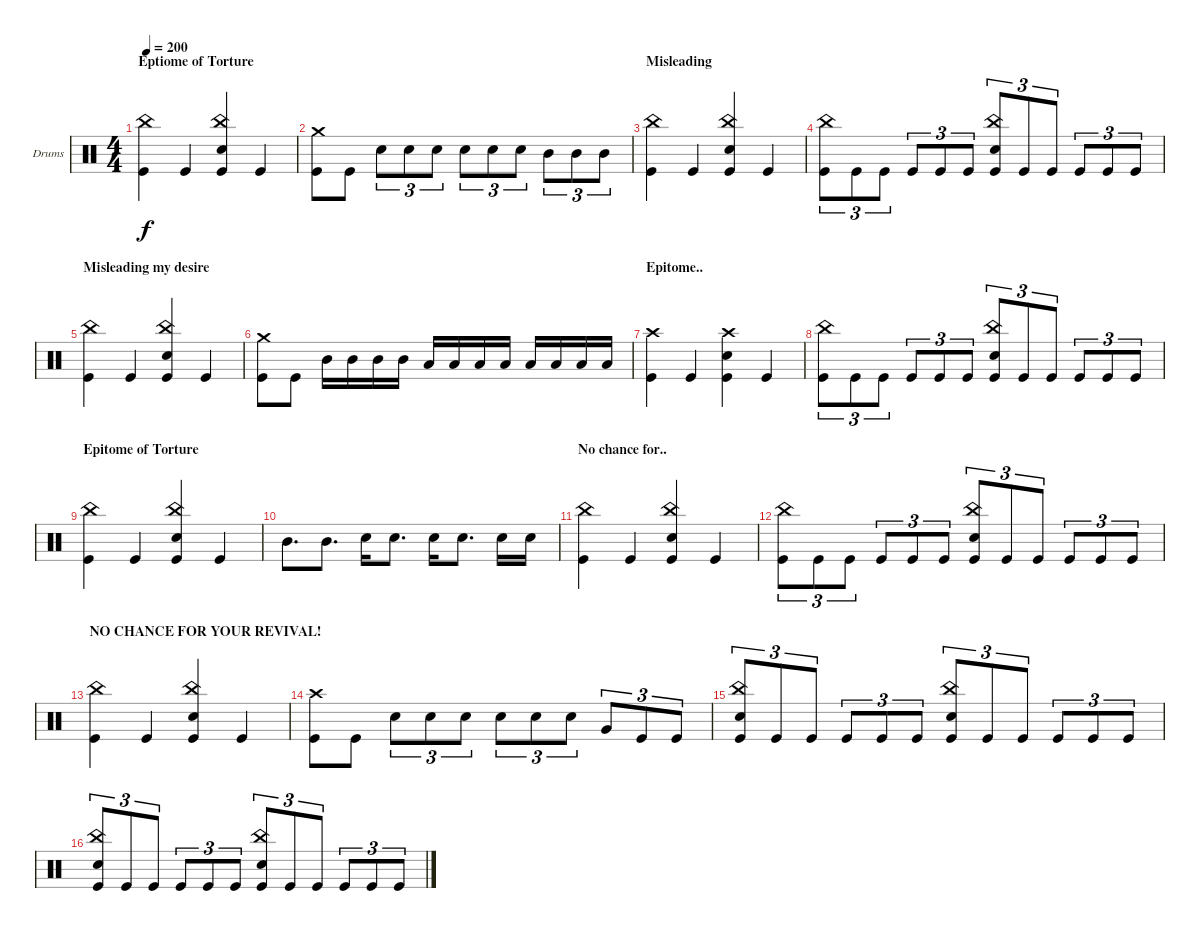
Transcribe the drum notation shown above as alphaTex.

\defaultSystemsLayout 4
\bracketExtendMode groupsimilarinstruments
\firstSystemTrackNameOrientation horizontal
\otherSystemsTrackNameOrientation horizontal
\track ("Markus Freiwald" "Drums") {instrument percussion}
\staff {score}
\articulation defaults
\ts (4 4)
\section ("" "Eptiome of Torture")
\tempo 200
\clef neutral
\ks c
("Kick (hit)" "China (hit)").4{dy f} "Kick (hit)".4 ("Snare (hit) 2" "Kick (hit)" "China (hit)").4 "Kick (hit)".4 |
("Crash medium (hit)" "Kick (hit)").8 "Kick (hit)".8 "Snare (hit) 2".8{tu (3 2)} "Snare (hit) 2".8{tu (3 2)} "Snare (hit) 2".8{tu (3 2)} "Snare (hit) 2".8{tu (3 2)} "Snare (hit) 2".8{tu (3 2)} "Snare (hit) 2".8{tu (3 2)} "Mid Tom (hit)".8{tu (3 2)} "Mid Tom (hit)".8{tu (3 2)} "Mid Tom (hit)".8{tu (3 2)} |
\section ("" "Misleading")
("Kick (hit)" "China (hit)").4 "Kick (hit)".4 ("Snare (hit) 2" "Kick (hit)" "China (hit)").4 "Kick (hit)".4 |
("China (hit)" "Kick (hit)").8{tu (3 2)} "Kick (hit)".8{tu (3 2)} "Kick (hit)".8{tu (3 2)} "Kick (hit)".8{tu (3 2)} "Kick (hit)".8{tu (3 2)} "Kick (hit)".8{tu (3 2)} ("China (hit)" "Kick (hit)" "Snare (hit) 2").8{tu (3 2)} "Kick (hit)".8{tu (3 2)} "Kick (hit)".8{tu (3 2)} "Kick (hit)".8{tu (3 2)} "Kick (hit)".8{tu (3 2)} "Kick (hit)".8{tu (3 2)} |
\section ("" "Misleading my desire")
("Kick (hit)" "China (hit)").4 "Kick (hit)".4 ("Snare (hit) 2" "Kick (hit)" "China (hit)").4 "Kick (hit)".4 |
("Crash medium (hit)" "Kick (hit)").8 "Kick (hit)".8 "Mid Tom (hit)".16 "Mid Tom (hit)".16 "Mid Tom (hit)".16 "Mid Tom (hit)".16 "Low Tom (hit)".16 "Low Tom (hit)".16 "Low Tom (hit)".16 "Low Tom (hit)".16 "Low Tom (hit)".16 "Low Tom (hit)".16 "Low Tom (hit)".16 "Low Tom (hit)".16 |
\section ("" "Epitome..")
("Crash high (hit)" "Kick (hit)").4 "Kick (hit)".4 ("Snare (hit) 2" "Kick (hit)" "Crash high (hit)").4 "Kick (hit)".4 |
("China (hit)" "Kick (hit)").8{tu (3 2)} "Kick (hit)".8{tu (3 2)} "Kick (hit)".8{tu (3 2)} "Kick (hit)".8{tu (3 2)} "Kick (hit)".8{tu (3 2)} "Kick (hit)".8{tu (3 2)} ("China (hit)" "Kick (hit)" "Snare (hit) 2").8{tu (3 2)} "Kick (hit)".8{tu (3 2)} "Kick (hit)".8{tu (3 2)} "Kick (hit)".8{tu (3 2)} "Kick (hit)".8{tu (3 2)} "Kick (hit)".8{tu (3 2)} |
\section ("" "Epitome of Torture")
("Kick (hit)" "China (hit)").4 "Kick (hit)".4 ("Snare (hit) 2" "Kick (hit)" "China (hit)").4 "Kick (hit)".4 |
"Mid Tom (hit)".8{d} "Mid Tom (hit)".8{d} "Snare (hit) 2".16 "Snare (hit) 2".8{d} "Snare (hit) 2".16 "Snare (hit) 2".8{d} "Snare (hit) 2".16 "Snare (hit) 2".16 |
\section ("" "No chance for..")
("Kick (hit)" "China (hit)").4 "Kick (hit)".4 ("Snare (hit) 2" "Kick (hit)" "China (hit)").4 "Kick (hit)".4 |
("China (hit)" "Kick (hit)").8{tu (3 2)} "Kick (hit)".8{tu (3 2)} "Kick (hit)".8{tu (3 2)} "Kick (hit)".8{tu (3 2)} "Kick (hit)".8{tu (3 2)} "Kick (hit)".8{tu (3 2)} ("China (hit)" "Kick (hit)" "Snare (hit) 2").8{tu (3 2)} "Kick (hit)".8{tu (3 2)} "Kick (hit)".8{tu (3 2)} "Kick (hit)".8{tu (3 2)} "Kick (hit)".8{tu (3 2)} "Kick (hit)".8{tu (3 2)} |
\section ("" "NO CHANCE FOR YOUR REVIVAL!")
("Kick (hit)" "China (hit)").4 "Kick (hit)".4 ("Snare (hit) 2" "Kick (hit)" "China (hit)").4 "Kick (hit)".4 |
("Kick (hit)" "Crash high (hit)").8 "Kick (hit)".8 "Snare (hit) 2".8{tu (3 2)} "Snare (hit) 2".8{tu (3 2)} "Snare (hit) 2".8{tu (3 2)} "Snare (hit) 2".8{tu (3 2)} "Snare (hit) 2".8{tu (3 2)} "Snare (hit) 2".8{tu (3 2)} "Very Low Tom (hit)".8{tu (3 2)} "Kick (hit)".8{tu (3 2)} "Kick (hit)".8{tu (3 2)} |
("China (hit)" "Kick (hit)" "Snare (hit) 2").8{tu (3 2)} "Kick (hit)".8{tu (3 2)} "Kick (hit)".8{tu (3 2)} "Kick (hit)".8{tu (3 2)} "Kick (hit)".8{tu (3 2)} "Kick (hit)".8{tu (3 2)} ("China (hit)" "Kick (hit)" "Snare (hit) 2").8{tu (3 2)} "Kick (hit)".8{tu (3 2)} "Kick (hit)".8{tu (3 2)} "Kick (hit)".8{tu (3 2)} "Kick (hit)".8{tu (3 2)} "Kick (hit)".8{tu (3 2)} |
("China (hit)" "Kick (hit)" "Snare (hit) 2").8{tu (3 2)} "Kick (hit)".8{tu (3 2)} "Kick (hit)".8{tu (3 2)} "Kick (hit)".8{tu (3 2)} "Kick (hit)".8{tu (3 2)} "Kick (hit)".8{tu (3 2)} ("China (hit)" "Kick (hit)" "Snare (hit) 2").8{tu (3 2)} "Kick (hit)".8{tu (3 2)} "Kick (hit)".8{tu (3 2)} "Kick (hit)".8{tu (3 2)} "Kick (hit)".8{tu (3 2)} "Kick (hit)".8{tu (3 2)}
